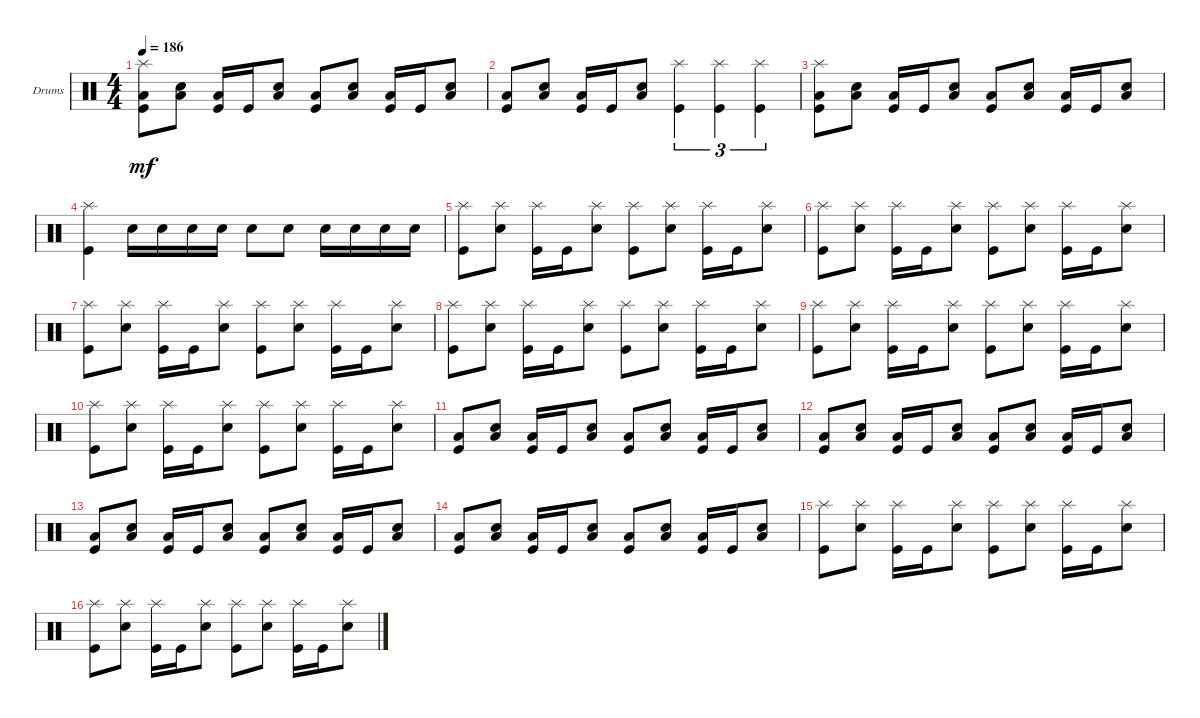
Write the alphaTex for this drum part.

\defaultSystemsLayout 4
\bracketExtendMode groupsimilarinstruments
\firstSystemTrackNameOrientation horizontal
\otherSystemsTrackNameOrientation horizontal
\track ("Drumkit" "Drums") {instrument percussion}
\staff {score}
\articulation defaults
\ts (4 4)
\tempo 186
\clef neutral
\ks c
("Kick (hit)" "Low Tom (hit)" "Splash (hit)").8{dy mf} ("Snare (hit) 2" "Low Tom (hit)").8 ("Kick (hit)" "Low Tom (hit)").16 "Kick (hit)".16 ("Snare (hit) 2" "Low Tom (hit)").8 ("Kick (hit)" "Low Tom (hit)").8 ("Snare (hit) 2" "Low Tom (hit)").8 ("Kick (hit)" "Low Tom (hit)").16 "Kick (hit)".16 ("Snare (hit) 2" "Low Tom (hit)").8 |
("Kick (hit)" "Low Tom (hit)").8 ("Snare (hit) 2" "Low Tom (hit)").8 ("Kick (hit)" "Low Tom (hit)").16 "Kick (hit)".16 ("Snare (hit) 2" "Low Tom (hit)").8 ("Kick (hit)" "Splash (hit)").4{tu (3 2)} ("Kick (hit)" "Splash (hit)").4{tu (3 2)} ("Kick (hit)" "Splash (hit)").4{tu (3 2)} |
("Kick (hit)" "Low Tom (hit)" "Splash (hit)").8 ("Snare (hit) 2" "Low Tom (hit)").8 ("Kick (hit)" "Low Tom (hit)").16 "Kick (hit)".16 ("Snare (hit) 2" "Low Tom (hit)").8 ("Kick (hit)" "Low Tom (hit)").8 ("Snare (hit) 2" "Low Tom (hit)").8 ("Kick (hit)" "Low Tom (hit)").16 "Kick (hit)".16 ("Snare (hit) 2" "Low Tom (hit)").8 |
("Splash (hit)" "Kick (hit)").4 "Snare (hit) 2".16 "Snare (hit) 2".16 "Snare (hit) 2".16 "Snare (hit) 2".16 "Snare (hit) 2".8 "Snare (hit) 2".8 "Snare (hit) 2".16 "Snare (hit) 2".16 "Snare (hit) 2".16 "Snare (hit) 2".16 |
("Kick (hit)" "Splash (hit)").8 ("Snare (hit) 2" "Splash (hit)").8 ("Kick (hit)" "Splash (hit)").16 "Kick (hit)".16 ("Snare (hit) 2" "Splash (hit)").8 ("Kick (hit)" "Splash (hit)").8 ("Snare (hit) 2" "Splash (hit)").8 ("Kick (hit)" "Splash (hit)").16 "Kick (hit)".16 ("Snare (hit) 2" "Splash (hit)").8 |
("Kick (hit)" "Splash (hit)").8 ("Snare (hit) 2" "Splash (hit)").8 ("Kick (hit)" "Splash (hit)").16 "Kick (hit)".16 ("Snare (hit) 2" "Splash (hit)").8 ("Kick (hit)" "Splash (hit)").8 ("Snare (hit) 2" "Splash (hit)").8 ("Kick (hit)" "Splash (hit)").16 "Kick (hit)".16 ("Snare (hit) 2" "Splash (hit)").8 |
("Kick (hit)" "Splash (hit)").8 ("Snare (hit) 2" "Splash (hit)").8 ("Kick (hit)" "Splash (hit)").16 "Kick (hit)".16 ("Snare (hit) 2" "Splash (hit)").8 ("Kick (hit)" "Splash (hit)").8 ("Snare (hit) 2" "Splash (hit)").8 ("Kick (hit)" "Splash (hit)").16 "Kick (hit)".16 ("Snare (hit) 2" "Splash (hit)").8 |
("Kick (hit)" "Splash (hit)").8 ("Snare (hit) 2" "Splash (hit)").8 ("Kick (hit)" "Splash (hit)").16 "Kick (hit)".16 ("Snare (hit) 2" "Splash (hit)").8 ("Kick (hit)" "Splash (hit)").8 ("Snare (hit) 2" "Splash (hit)").8 ("Kick (hit)" "Splash (hit)").16 "Kick (hit)".16 ("Snare (hit) 2" "Splash (hit)").8 |
("Kick (hit)" "Splash (hit)").8 ("Snare (hit) 2" "Splash (hit)").8 ("Kick (hit)" "Splash (hit)").16 "Kick (hit)".16 ("Snare (hit) 2" "Splash (hit)").8 ("Kick (hit)" "Splash (hit)").8 ("Snare (hit) 2" "Splash (hit)").8 ("Kick (hit)" "Splash (hit)").16 "Kick (hit)".16 ("Snare (hit) 2" "Splash (hit)").8 |
("Kick (hit)" "Splash (hit)").8 ("Snare (hit) 2" "Splash (hit)").8 ("Kick (hit)" "Splash (hit)").16 "Kick (hit)".16 ("Snare (hit) 2" "Splash (hit)").8 ("Kick (hit)" "Splash (hit)").8 ("Snare (hit) 2" "Splash (hit)").8 ("Kick (hit)" "Splash (hit)").16 "Kick (hit)".16 ("Snare (hit) 2" "Splash (hit)").8 |
("Kick (hit)" "Low Tom (hit)").8 ("Snare (hit) 2" "Low Tom (hit)").8 ("Kick (hit)" "Low Tom (hit)").16 "Kick (hit)".16 ("Snare (hit) 2" "Low Tom (hit)").8 ("Kick (hit)" "Low Tom (hit)").8 ("Snare (hit) 2" "Low Tom (hit)").8 ("Kick (hit)" "Low Tom (hit)").16 "Kick (hit)".16 ("Snare (hit) 2" "Low Tom (hit)").8 |
("Kick (hit)" "Low Tom (hit)").8 ("Snare (hit) 2" "Low Tom (hit)").8 ("Kick (hit)" "Low Tom (hit)").16 "Kick (hit)".16 ("Snare (hit) 2" "Low Tom (hit)").8 ("Kick (hit)" "Low Tom (hit)").8 ("Snare (hit) 2" "Low Tom (hit)").8 ("Kick (hit)" "Low Tom (hit)").16 "Kick (hit)".16 ("Snare (hit) 2" "Low Tom (hit)").8 |
("Kick (hit)" "Low Tom (hit)").8 ("Snare (hit) 2" "Low Tom (hit)").8 ("Kick (hit)" "Low Tom (hit)").16 "Kick (hit)".16 ("Snare (hit) 2" "Low Tom (hit)").8 ("Kick (hit)" "Low Tom (hit)").8 ("Snare (hit) 2" "Low Tom (hit)").8 ("Kick (hit)" "Low Tom (hit)").16 "Kick (hit)".16 ("Snare (hit) 2" "Low Tom (hit)").8 |
("Kick (hit)" "Low Tom (hit)").8 ("Snare (hit) 2" "Low Tom (hit)").8 ("Kick (hit)" "Low Tom (hit)").16 "Kick (hit)".16 ("Snare (hit) 2" "Low Tom (hit)").8 ("Kick (hit)" "Low Tom (hit)").8 ("Snare (hit) 2" "Low Tom (hit)").8 ("Kick (hit)" "Low Tom (hit)").16 "Kick (hit)".16 ("Snare (hit) 2" "Low Tom (hit)").8 |
("Kick (hit)" "Splash (hit)").8 ("Snare (hit) 2" "Splash (hit)").8 ("Kick (hit)" "Splash (hit)").16 "Kick (hit)".16 ("Snare (hit) 2" "Splash (hit)").8 ("Kick (hit)" "Splash (hit)").8 ("Snare (hit) 2" "Splash (hit)").8 ("Kick (hit)" "Splash (hit)").16 "Kick (hit)".16 ("Snare (hit) 2" "Splash (hit)").8 |
("Kick (hit)" "Splash (hit)").8 ("Snare (hit) 2" "Splash (hit)").8 ("Kick (hit)" "Splash (hit)").16 "Kick (hit)".16 ("Snare (hit) 2" "Splash (hit)").8 ("Kick (hit)" "Splash (hit)").8 ("Snare (hit) 2" "Splash (hit)").8 ("Kick (hit)" "Splash (hit)").16 "Kick (hit)".16 ("Snare (hit) 2" "Splash (hit)").8
